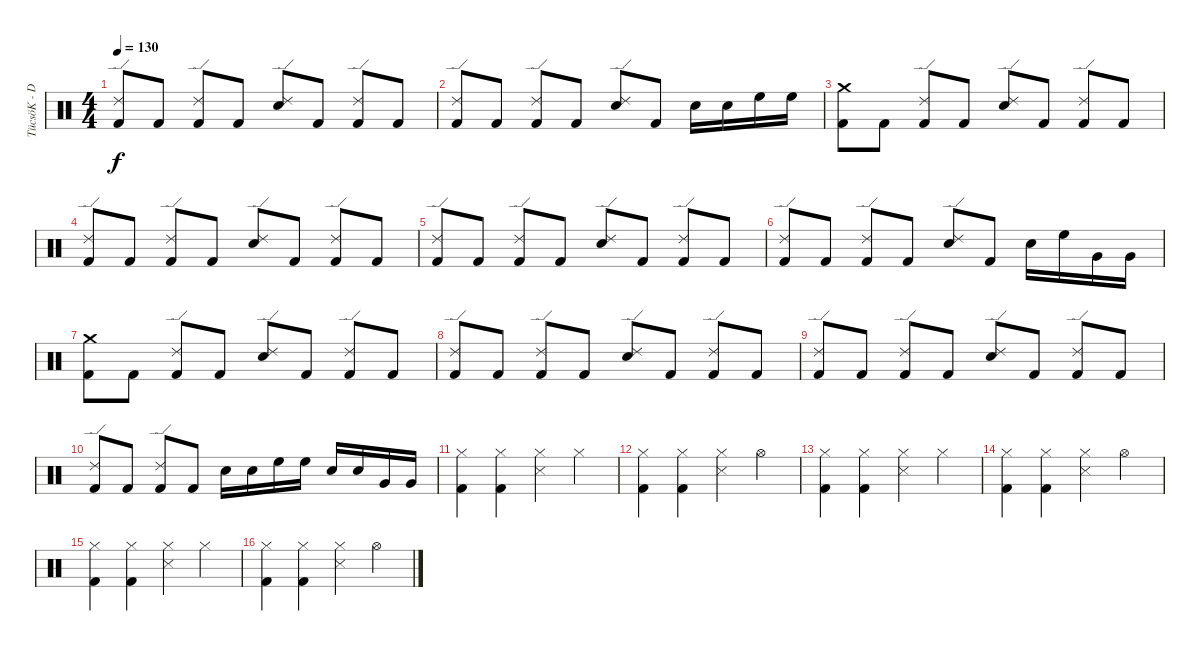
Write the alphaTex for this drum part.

\track ("TücsöK - Dob" "TücsöK - D") {instrument percussion}
\staff {score}
\articulation defaults
\ts (4 4)
\tempo 130
\clef neutral
\ks c
("Ride (edge) 2" "Kick (hit) 2").8{dy f} "Kick (hit) 2".8 ("Ride (edge) 2" "Kick (hit) 2").8 "Kick (hit) 2".8 ("Ride (edge) 2" "Snare (hit) 2").8 "Kick (hit) 2".8 ("Ride (edge) 2" "Kick (hit) 2").8 "Kick (hit) 2".8 |
("Ride (edge) 2" "Kick (hit) 2").8 "Kick (hit) 2".8 ("Ride (edge) 2" "Kick (hit) 2").8 "Kick (hit) 2".8 ("Ride (edge) 2" "Snare (hit) 2").8 "Kick (hit) 2".8 "Snare (hit) 2".16 "Snare (hit) 2".16 "High Floor Tom (hit)".16 "High Floor Tom (hit)".16 |
("Crash medium (hit)" "Kick (hit) 2").8 "Kick (hit) 2".8 ("Ride (edge) 2" "Kick (hit) 2").8 "Kick (hit) 2".8 ("Ride (edge) 2" "Snare (hit) 2").8 "Kick (hit) 2".8 ("Ride (edge) 2" "Kick (hit) 2").8 "Kick (hit) 2".8 |
("Ride (edge) 2" "Kick (hit) 2").8 "Kick (hit) 2".8 ("Ride (edge) 2" "Kick (hit) 2").8 "Kick (hit) 2".8 ("Ride (edge) 2" "Snare (hit) 2").8 "Kick (hit) 2".8 ("Ride (edge) 2" "Kick (hit) 2").8 "Kick (hit) 2".8 |
("Ride (edge) 2" "Kick (hit) 2").8 "Kick (hit) 2".8 ("Ride (edge) 2" "Kick (hit) 2").8 "Kick (hit) 2".8 ("Ride (edge) 2" "Snare (hit) 2").8 "Kick (hit) 2".8 ("Ride (edge) 2" "Kick (hit) 2").8 "Kick (hit) 2".8 |
("Ride (edge) 2" "Kick (hit) 2").8 "Kick (hit) 2".8 ("Ride (edge) 2" "Kick (hit) 2").8 "Kick (hit) 2".8 ("Ride (edge) 2" "Snare (hit) 2").8 "Kick (hit) 2".8 "Snare (hit) 2".16 "High Floor Tom (hit)".16 "Very Low Tom (hit)".16 "Very Low Tom (hit)".16 |
("Crash medium (hit)" "Kick (hit) 2").8 "Kick (hit) 2".8 ("Ride (edge) 2" "Kick (hit) 2").8 "Kick (hit) 2".8 ("Ride (edge) 2" "Snare (hit) 2").8 "Kick (hit) 2".8 ("Ride (edge) 2" "Kick (hit) 2").8 "Kick (hit) 2".8 |
("Ride (edge) 2" "Kick (hit) 2").8 "Kick (hit) 2".8 ("Ride (edge) 2" "Kick (hit) 2").8 "Kick (hit) 2".8 ("Ride (edge) 2" "Snare (hit) 2").8 "Kick (hit) 2".8 ("Ride (edge) 2" "Kick (hit) 2").8 "Kick (hit) 2".8 |
("Ride (edge) 2" "Kick (hit) 2").8 "Kick (hit) 2".8 ("Ride (edge) 2" "Kick (hit) 2").8 "Kick (hit) 2".8 ("Ride (edge) 2" "Snare (hit) 2").8 "Kick (hit) 2".8 ("Ride (edge) 2" "Kick (hit) 2").8 "Kick (hit) 2".8 |
("Ride (edge) 2" "Kick (hit) 2").8 "Kick (hit) 2".8 ("Ride (edge) 2" "Kick (hit) 2").8 "Kick (hit) 2".8 "Snare (hit) 2".16 "Snare (hit) 2".16 "High Floor Tom (hit)".16 "High Floor Tom (hit)".16 "Snare (hit) 2".16 "Snare (hit) 2".16 "Very Low Tom (hit)".16 "Very Low Tom (hit)".16 |
("Hi-Hat (closed)" "Kick (hit) 2").4 ("Hi-Hat (closed)" "Kick (hit) 2").4 ("Hi-Hat (closed)" "Snare (side stick) 3").4 "Hi-Hat (closed)".4 |
("Hi-Hat (closed)" "Kick (hit) 2").4 ("Hi-Hat (closed)" "Kick (hit) 2").4 ("Hi-Hat (closed)" "Snare (side stick) 3").4 "Hi-Hat (open)".4 |
("Hi-Hat (closed)" "Kick (hit) 2").4 ("Hi-Hat (closed)" "Kick (hit) 2").4 ("Hi-Hat (closed)" "Snare (side stick) 3").4 "Hi-Hat (closed)".4 |
("Hi-Hat (closed)" "Kick (hit) 2").4 ("Hi-Hat (closed)" "Kick (hit) 2").4 ("Hi-Hat (closed)" "Snare (side stick) 3").4 "Hi-Hat (open)".4 |
("Hi-Hat (closed)" "Kick (hit) 2").4 ("Hi-Hat (closed)" "Kick (hit) 2").4 ("Hi-Hat (closed)" "Snare (side stick) 3").4 "Hi-Hat (closed)".4 |
("Hi-Hat (closed)" "Kick (hit) 2").4 ("Hi-Hat (closed)" "Kick (hit) 2").4 ("Hi-Hat (closed)" "Snare (side stick) 3").4 "Hi-Hat (open)".4
